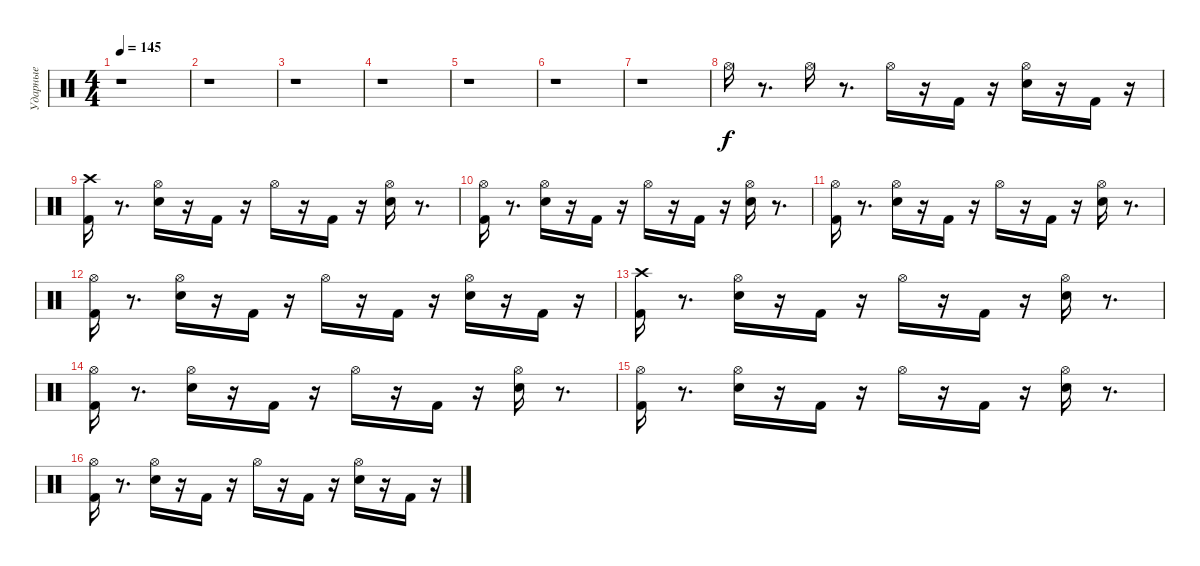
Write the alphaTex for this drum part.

\track ("Ударные" "Ударные") {instrument percussion}
\staff {score}
\articulation defaults
\ts (4 4)
\tempo 145
\clef neutral
\ks c
r.1{dy f} |
r.1 |
r.1 |
r.1 |
r.1 |
r.1 |
r.1 |
"Hi-Hat (open)".16 r.8{d} "Hi-Hat (open)".16 r.8{d} "Hi-Hat (open)".16 r.16 "Kick (hit) 2".16 r.16 ("Hi-Hat (open)" "Electric Snare (hit)").16 r.16 "Kick (hit) 2".16 r.16 |
("Kick (hit) 2" "Crash high (hit)").16 r.8{d} ("Electric Snare (hit)" "Hi-Hat (open)").16 r.16 "Kick (hit) 2".16 r.16 "Hi-Hat (open)".16 r.16 "Kick (hit) 2".16 r.16 ("Hi-Hat (open)" "Electric Snare (hit)").16 r.8{d} |
("Kick (hit) 2" "Hi-Hat (open)").16 r.8{d} ("Hi-Hat (open)" "Electric Snare (hit)").16 r.16 "Kick (hit) 2".16 r.16 "Hi-Hat (open)".16 r.16 "Kick (hit) 2".16 r.16 ("Hi-Hat (open)" "Electric Snare (hit)").16 r.8{d} |
("Hi-Hat (open)" "Kick (hit) 2").16 r.8{d} ("Electric Snare (hit)" "Hi-Hat (open)").16 r.16 "Kick (hit) 2".16 r.16 "Hi-Hat (open)".16 r.16 "Kick (hit) 2".16 r.16 ("Hi-Hat (open)" "Electric Snare (hit)").16 r.8{d} |
("Hi-Hat (open)" "Kick (hit) 2").16 r.8{d} ("Electric Snare (hit)" "Hi-Hat (open)").16 r.16 "Kick (hit) 2".16 r.16 "Hi-Hat (open)".16 r.16 "Kick (hit) 2".16 r.16 ("Hi-Hat (open)" "Electric Snare (hit)").16 r.16 "Kick (hit) 2".16 r.16 |
("Kick (hit) 2" "Crash high (hit)").16 r.8{d} ("Electric Snare (hit)" "Hi-Hat (open)").16 r.16 "Kick (hit) 2".16 r.16 "Hi-Hat (open)".16 r.16 "Kick (hit) 2".16 r.16 ("Electric Snare (hit)" "Hi-Hat (open)").16 r.8{d} |
("Hi-Hat (open)" "Kick (hit) 2").16 r.8{d} ("Hi-Hat (open)" "Electric Snare (hit)").16 r.16 "Kick (hit) 2".16 r.16 "Hi-Hat (open)".16 r.16 "Kick (hit) 2".16 r.16 ("Hi-Hat (open)" "Electric Snare (hit)").16 r.8{d} |
("Hi-Hat (open)" "Kick (hit) 2").16 r.8{d} ("Electric Snare (hit)" "Hi-Hat (open)").16 r.16 "Kick (hit) 2".16 r.16 "Hi-Hat (open)".16 r.16 "Kick (hit) 2".16 r.16 ("Electric Snare (hit)" "Hi-Hat (open)").16 r.8{d} |
("Kick (hit) 2" "Hi-Hat (open)").16 r.8{d} ("Hi-Hat (open)" "Electric Snare (hit)").16 r.16 "Kick (hit) 2".16 r.16 "Hi-Hat (open)".16 r.16 "Kick (hit) 2".16 r.16 ("Hi-Hat (open)" "Electric Snare (hit)").16 r.16 "Kick (hit) 2".16 r.16
